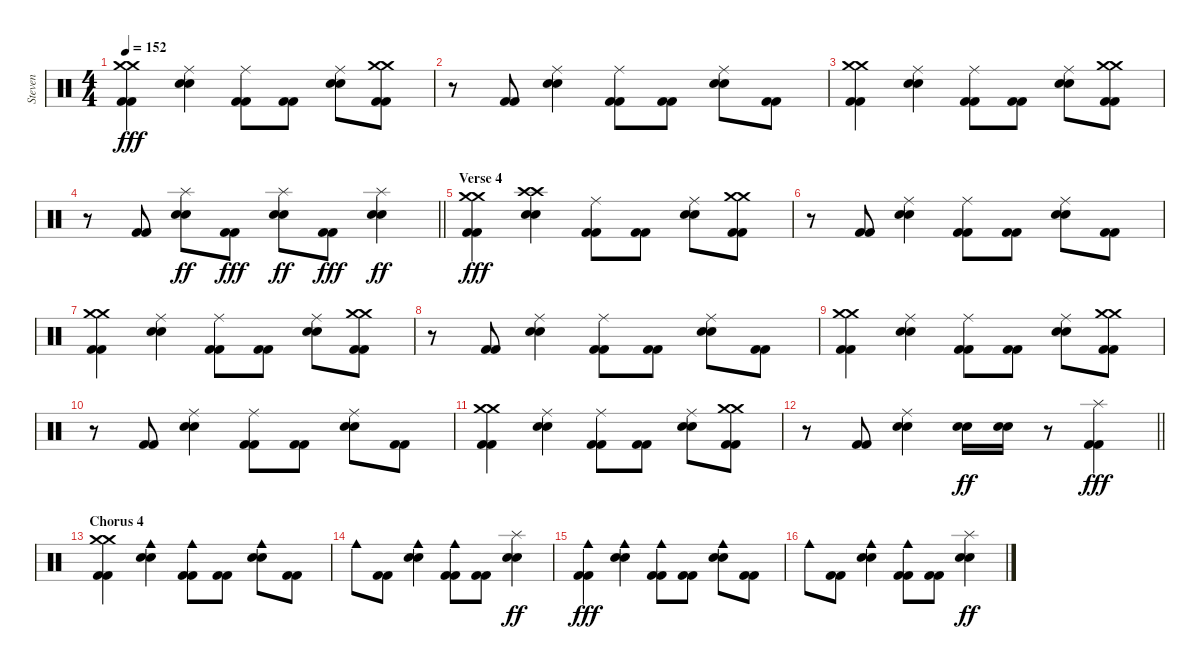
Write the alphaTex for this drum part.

\track ("Steven" "Steven") {instrument percussion}
\staff {score}
\articulation defaults
\ts (4 4)
\tempo 152
\clef neutral
\ks c
("Crash medium (hit)" "Crash medium (hit)" "Kick (hit) 2" "Kick (hit) 2").4{dy fff} ("Ride (middle)" "Electric Snare (hit)" "Electric Snare (hit)").4 ("Ride (middle)" "Kick (hit) 2" "Kick (hit) 2").8 ("Kick (hit) 2" "Kick (hit) 2").8 ("Ride (middle)" "Electric Snare (hit)" "Electric Snare (hit)").8 ("Crash medium (hit)" "Crash medium (hit)" "Kick (hit) 2" "Kick (hit) 2").8 |
r.8 ("Kick (hit) 2" "Kick (hit) 2").8 ("Ride (middle)" "Electric Snare (hit)" "Electric Snare (hit)").4 ("Ride (middle)" "Kick (hit) 2" "Kick (hit) 2").8 ("Kick (hit) 2" "Kick (hit) 2").8 ("Ride (middle)" "Electric Snare (hit)" "Electric Snare (hit)").8 ("Kick (hit) 2" "Kick (hit) 2").8 |
("Crash medium (hit)" "Crash medium (hit)" "Kick (hit) 2" "Kick (hit) 2").4 ("Ride (middle)" "Electric Snare (hit)" "Electric Snare (hit)").4 ("Ride (middle)" "Kick (hit) 2" "Kick (hit) 2").8 ("Kick (hit) 2" "Kick (hit) 2").8 ("Ride (middle)" "Electric Snare (hit)" "Electric Snare (hit)").8 ("Crash medium (hit)" "Crash medium (hit)" "Kick (hit) 2" "Kick (hit) 2").8 |
\barLineRight lightlight
r.8 ("Kick (hit) 2" "Kick (hit) 2").8 ("Splash (hit)" "Electric Snare (hit)" "Electric Snare (hit)").8{dy ff} ("Kick (hit) 2" "Kick (hit) 2").8{dy fff} ("Splash (hit)" "Electric Snare (hit)" "Electric Snare (hit)").8{dy ff} ("Kick (hit) 2" "Kick (hit) 2").8{dy fff} ("Splash (hit)" "Electric Snare (hit)" "Electric Snare (hit)").4{dy ff} |
\section ("" "Verse 4")
("Crash medium (hit)" "Crash medium (hit)" "Kick (hit) 2" "Kick (hit) 2").4{dy fff} ("Crash high (hit)" "Crash high (hit)" "Electric Snare (hit)" "Electric Snare (hit)").4 ("Ride (middle)" "Kick (hit) 2" "Kick (hit) 2").8 ("Kick (hit) 2" "Kick (hit) 2").8 ("Ride (middle)" "Electric Snare (hit)" "Electric Snare (hit)").8 ("Crash medium (hit)" "Crash medium (hit)" "Kick (hit) 2" "Kick (hit) 2").8 |
r.8 ("Kick (hit) 2" "Kick (hit) 2").8 ("Ride (middle)" "Electric Snare (hit)" "Electric Snare (hit)").4 ("Ride (middle)" "Kick (hit) 2" "Kick (hit) 2").8 ("Kick (hit) 2" "Kick (hit) 2").8 ("Ride (middle)" "Electric Snare (hit)" "Electric Snare (hit)").8 ("Kick (hit) 2" "Kick (hit) 2").8 |
("Crash medium (hit)" "Crash medium (hit)" "Kick (hit) 2" "Kick (hit) 2").4 ("Ride (middle)" "Electric Snare (hit)" "Electric Snare (hit)").4 ("Ride (middle)" "Kick (hit) 2" "Kick (hit) 2").8 ("Kick (hit) 2" "Kick (hit) 2").8 ("Ride (middle)" "Electric Snare (hit)" "Electric Snare (hit)").8 ("Crash medium (hit)" "Crash medium (hit)" "Kick (hit) 2" "Kick (hit) 2").8 |
r.8 ("Kick (hit) 2" "Kick (hit) 2").8 ("Ride (middle)" "Electric Snare (hit)" "Electric Snare (hit)").4 ("Ride (middle)" "Kick (hit) 2" "Kick (hit) 2").8 ("Kick (hit) 2" "Kick (hit) 2").8 ("Ride (middle)" "Electric Snare (hit)" "Electric Snare (hit)").8 ("Kick (hit) 2" "Kick (hit) 2").8 |
("Crash medium (hit)" "Crash medium (hit)" "Kick (hit) 2" "Kick (hit) 2").4 ("Ride (middle)" "Electric Snare (hit)" "Electric Snare (hit)").4 ("Ride (middle)" "Kick (hit) 2" "Kick (hit) 2").8 ("Kick (hit) 2" "Kick (hit) 2").8 ("Ride (middle)" "Electric Snare (hit)" "Electric Snare (hit)").8 ("Crash medium (hit)" "Crash medium (hit)" "Kick (hit) 2" "Kick (hit) 2").8 |
r.8 ("Kick (hit) 2" "Kick (hit) 2").8 ("Ride (middle)" "Electric Snare (hit)" "Electric Snare (hit)").4 ("Ride (middle)" "Kick (hit) 2" "Kick (hit) 2").8 ("Kick (hit) 2" "Kick (hit) 2").8 ("Ride (middle)" "Electric Snare (hit)" "Electric Snare (hit)").8 ("Kick (hit) 2" "Kick (hit) 2").8 |
("Crash medium (hit)" "Crash medium (hit)" "Kick (hit) 2" "Kick (hit) 2").4 ("Ride (middle)" "Electric Snare (hit)" "Electric Snare (hit)").4 ("Ride (middle)" "Kick (hit) 2" "Kick (hit) 2").8 ("Kick (hit) 2" "Kick (hit) 2").8 ("Ride (middle)" "Electric Snare (hit)" "Electric Snare (hit)").8 ("Crash medium (hit)" "Crash medium (hit)" "Kick (hit) 2" "Kick (hit) 2").8 |
\barLineRight lightlight
r.8 ("Kick (hit) 2" "Kick (hit) 2").8 ("Ride (middle)" "Electric Snare (hit)" "Electric Snare (hit)").4 ("Electric Snare (hit)" "Electric Snare (hit)").16{dy ff} ("Electric Snare (hit)" "Electric Snare (hit)").16 r.8 ("Splash (hit)" "Kick (hit) 2" "Kick (hit) 2").4{dy fff} |
\section ("" "Chorus 4")
("Crash medium (hit)" "Crash medium (hit)" "Kick (hit) 2" "Kick (hit) 2").4 ("Cowbell medium (hit)" "Electric Snare (hit)" "Electric Snare (hit)").4 ("Cowbell medium (hit)" "Kick (hit) 2" "Kick (hit) 2").8 ("Kick (hit) 2" "Kick (hit) 2").8 ("Cowbell medium (hit)" "Electric Snare (hit)" "Electric Snare (hit)").8 ("Kick (hit) 2" "Kick (hit) 2").8 |
"Cowbell medium (hit)".8 ("Kick (hit) 2" "Kick (hit) 2").8 ("Cowbell medium (hit)" "Electric Snare (hit)" "Electric Snare (hit)").4 ("Cowbell medium (hit)" "Kick (hit) 2" "Kick (hit) 2").8 ("Kick (hit) 2" "Kick (hit) 2").8 ("Splash (hit)" "Electric Snare (hit)" "Electric Snare (hit)").4{dy ff} |
("Cowbell medium (hit)" "Kick (hit) 2" "Kick (hit) 2").4{dy fff} ("Cowbell medium (hit)" "Electric Snare (hit)" "Electric Snare (hit)").4 ("Cowbell medium (hit)" "Kick (hit) 2" "Kick (hit) 2").8 ("Kick (hit) 2" "Kick (hit) 2").8 ("Cowbell medium (hit)" "Electric Snare (hit)" "Electric Snare (hit)").8 ("Kick (hit) 2" "Kick (hit) 2").8 |
"Cowbell medium (hit)".8 ("Kick (hit) 2" "Kick (hit) 2").8 ("Cowbell medium (hit)" "Electric Snare (hit)" "Electric Snare (hit)").4 ("Cowbell medium (hit)" "Kick (hit) 2" "Kick (hit) 2").8 ("Kick (hit) 2" "Kick (hit) 2").8 ("Splash (hit)" "Electric Snare (hit)" "Electric Snare (hit)").4{dy ff}
